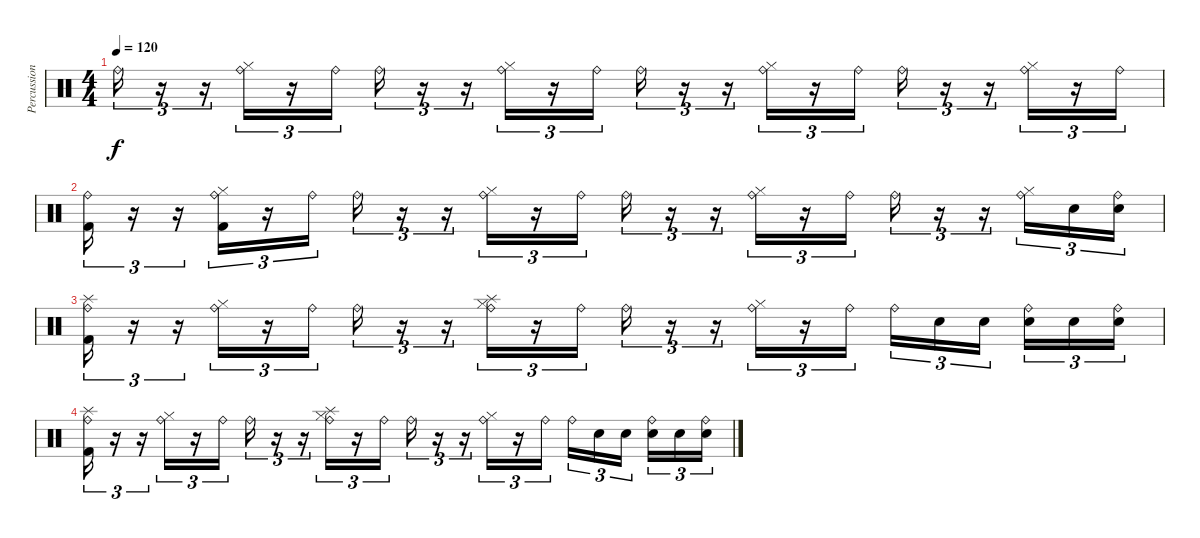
\track ("Percussion" "Percussion") {instrument percussion}
\staff {score}
\articulation defaults
\ts (4 4)
\tempo 120
\clef neutral
\ks c "Ride (bell)".16{tu (3 2) dy f}
r.16{tu (3 2)} r.16{tu (3 2)} ("Hi-Hat (closed)" "Ride (bell)").16{tu (3 2)} r.16{tu (3 2)} "Ride (bell)".16{tu (3 2)} "Ride (bell)".16{tu (3 2)} r.16{tu (3 2)} r.16{tu (3 2)} ("Hi-Hat (closed)" "Ride (bell)").16{tu (3 2)} r.16{tu (3 2)} "Ride (bell)".16{tu (3 2)} "Ride (bell)".16{tu (3 2)} r.16{tu (3 2)} r.16{tu (3 2)} ("Hi-Hat (closed)" "Ride (bell)").16{tu (3 2)} r.16{tu (3 2)} "Ride (bell)".16{tu (3 2)} "Ride (bell)".16{tu (3 2)} r.16{tu (3 2)} r.16{tu (3 2)} ("Hi-Hat (closed)" "Ride (bell)").16{tu (3 2)} r.16{tu (3 2)} "Ride (bell)".16{tu (3 2)} |
("Kick (hit) 2" "Ride (bell)").16{tu (3 2)} r.16{tu (3 2)} r.16{tu (3 2)} ("Hi-Hat (closed)" "Ride (bell)" "Kick (hit) 2").16{tu (3 2)} r.16{tu (3 2)} "Ride (bell)".16{tu (3 2)} "Ride (bell)".16{tu (3 2)} r.16{tu (3 2)} r.16{tu (3 2)} ("Hi-Hat (closed)" "Ride (bell)").16{tu (3 2)} r.16{tu (3 2)} "Ride (bell)".16{tu (3 2)} "Ride (bell)".16{tu (3 2)} r.16{tu (3 2)} r.16{tu (3 2)} ("Hi-Hat (closed)" "Ride (bell)").16{tu (3 2)} r.16{tu (3 2)} "Ride (bell)".16{tu (3 2)} "Ride (bell)".16{tu (3 2)} r.16{tu (3 2)} r.16{tu (3 2)} ("Hi-Hat (closed)" "Ride (bell)").16{tu (3 2)} "Snare (hit) 2".16{tu (3 2)} ("Snare (hit) 2" "Ride (bell)").16{tu (3 2)} |
("Kick (hit) 2" "Ride (bell)" "Splash (hit)").16{tu (3 2)} r.16{tu (3 2)} r.16{tu (3 2)} ("Hi-Hat (closed)" "Ride (bell)").16{tu (3 2)} r.16{tu (3 2)} "Ride (bell)".16{tu (3 2)} "Ride (bell)".16{tu (3 2)} r.16{tu (3 2)} r.16{tu (3 2)} ("Hi-Hat (closed)" "Ride (bell)" "Splash (hit)").16{tu (3 2)} r.16{tu (3 2)} "Ride (bell)".16{tu (3 2)} "Ride (bell)".16{tu (3 2)} r.16{tu (3 2)} r.16{tu (3 2)} ("Hi-Hat (closed)" "Ride (bell)").16{tu (3 2)} r.16{tu (3 2)} "Ride (bell)".16{tu (3 2)} "Ride (bell)".16{tu (3 2)} "Snare (hit) 2".16{tu (3 2)} "Snare (hit) 2".16{tu (3 2) beam splitsecondary} ("Snare (hit) 2" "Ride (bell)").16{tu (3 2)} "Snare (hit) 2".16{tu (3 2)} ("Snare (hit) 2" "Ride (bell)").16{tu (3 2)} |
("Kick (hit) 2" "Ride (bell)" "Splash (hit)").16{tu (3 2)} r.16{tu (3 2)} r.16{tu (3 2)} ("Hi-Hat (closed)" "Ride (bell)").16{tu (3 2)} r.16{tu (3 2)} "Ride (bell)".16{tu (3 2)} "Ride (bell)".16{tu (3 2)} r.16{tu (3 2)} r.16{tu (3 2)} ("Hi-Hat (closed)" "Ride (bell)" "Splash (hit)").16{tu (3 2)} r.16{tu (3 2)} "Ride (bell)".16{tu (3 2)} "Ride (bell)".16{tu (3 2)} r.16{tu (3 2)} r.16{tu (3 2)} ("Hi-Hat (closed)" "Ride (bell)").16{tu (3 2)} r.16{tu (3 2)} "Ride (bell)".16{tu (3 2)} "Ride (bell)".16{tu (3 2)} "Snare (hit) 2".16{tu (3 2)} "Snare (hit) 2".16{tu (3 2) beam splitsecondary} ("Snare (hit) 2" "Ride (bell)").16{tu (3 2)} "Snare (hit) 2".16{tu (3 2)} ("Snare (hit) 2" "Ride (bell)").16{tu (3 2)}
